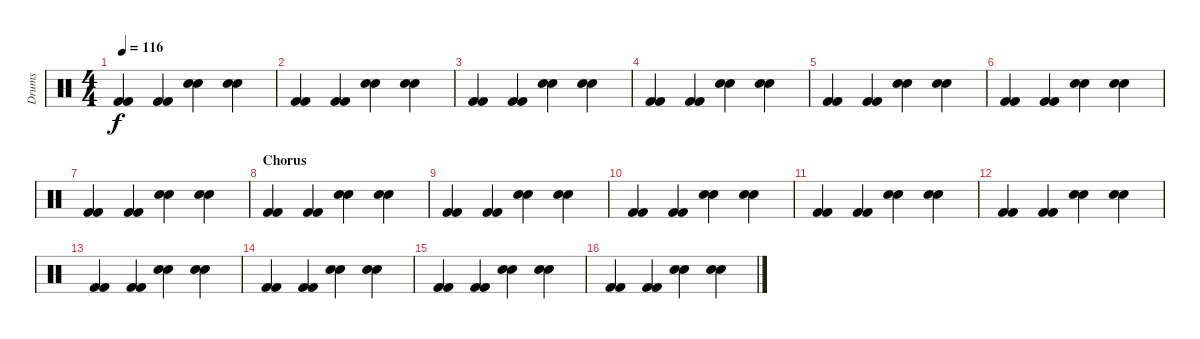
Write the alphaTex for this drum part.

\track ("Drums" "Drums") {instrument percussion}
\staff {score}
\articulation defaults
\ts (4 4)
\tempo 116
\clef neutral
\ks c
("Kick (hit) 2" "Kick (hit) 2").4{dy f} ("Kick (hit) 2" "Kick (hit) 2").4 ("Snare (hit) 2" "Snare (hit) 2").4 ("Snare (hit) 2" "Snare (hit) 2").4 |
("Kick (hit) 2" "Kick (hit) 2").4 ("Kick (hit) 2" "Kick (hit) 2").4 ("Snare (hit) 2" "Snare (hit) 2").4 ("Snare (hit) 2" "Snare (hit) 2").4 |
("Kick (hit) 2" "Kick (hit) 2").4 ("Kick (hit) 2" "Kick (hit) 2").4 ("Snare (hit) 2" "Snare (hit) 2").4 ("Snare (hit) 2" "Snare (hit) 2").4 |
("Kick (hit) 2" "Kick (hit) 2").4 ("Kick (hit) 2" "Kick (hit) 2").4 ("Snare (hit) 2" "Snare (hit) 2").4 ("Snare (hit) 2" "Snare (hit) 2").4 |
("Kick (hit) 2" "Kick (hit) 2").4 ("Kick (hit) 2" "Kick (hit) 2").4 ("Snare (hit) 2" "Snare (hit) 2").4 ("Snare (hit) 2" "Snare (hit) 2").4 |
("Kick (hit) 2" "Kick (hit) 2").4 ("Kick (hit) 2" "Kick (hit) 2").4 ("Snare (hit) 2" "Snare (hit) 2").4 ("Snare (hit) 2" "Snare (hit) 2").4 |
("Kick (hit) 2" "Kick (hit) 2").4 ("Kick (hit) 2" "Kick (hit) 2").4 ("Snare (hit) 2" "Snare (hit) 2").4 ("Snare (hit) 2" "Snare (hit) 2").4 |
\section ("" "Chorus")
("Kick (hit) 2" "Kick (hit) 2").4 ("Kick (hit) 2" "Kick (hit) 2").4 ("Snare (hit) 2" "Snare (hit) 2").4 ("Snare (hit) 2" "Snare (hit) 2").4 |
("Kick (hit) 2" "Kick (hit) 2").4 ("Kick (hit) 2" "Kick (hit) 2").4 ("Snare (hit) 2" "Snare (hit) 2").4 ("Snare (hit) 2" "Snare (hit) 2").4 |
("Kick (hit) 2" "Kick (hit) 2").4 ("Kick (hit) 2" "Kick (hit) 2").4 ("Snare (hit) 2" "Snare (hit) 2").4 ("Snare (hit) 2" "Snare (hit) 2").4 |
("Kick (hit) 2" "Kick (hit) 2").4 ("Kick (hit) 2" "Kick (hit) 2").4 ("Snare (hit) 2" "Snare (hit) 2").4 ("Snare (hit) 2" "Snare (hit) 2").4 |
("Kick (hit) 2" "Kick (hit) 2").4 ("Kick (hit) 2" "Kick (hit) 2").4 ("Snare (hit) 2" "Snare (hit) 2").4 ("Snare (hit) 2" "Snare (hit) 2").4 |
("Kick (hit) 2" "Kick (hit) 2").4 ("Kick (hit) 2" "Kick (hit) 2").4 ("Snare (hit) 2" "Snare (hit) 2").4 ("Snare (hit) 2" "Snare (hit) 2").4 |
("Kick (hit) 2" "Kick (hit) 2").4 ("Kick (hit) 2" "Kick (hit) 2").4 ("Snare (hit) 2" "Snare (hit) 2").4 ("Snare (hit) 2" "Snare (hit) 2").4 |
("Kick (hit) 2" "Kick (hit) 2").4 ("Kick (hit) 2" "Kick (hit) 2").4 ("Snare (hit) 2" "Snare (hit) 2").4 ("Snare (hit) 2" "Snare (hit) 2").4 |
("Kick (hit) 2" "Kick (hit) 2").4 ("Kick (hit) 2" "Kick (hit) 2").4 ("Snare (hit) 2" "Snare (hit) 2").4 ("Snare (hit) 2" "Snare (hit) 2").4
